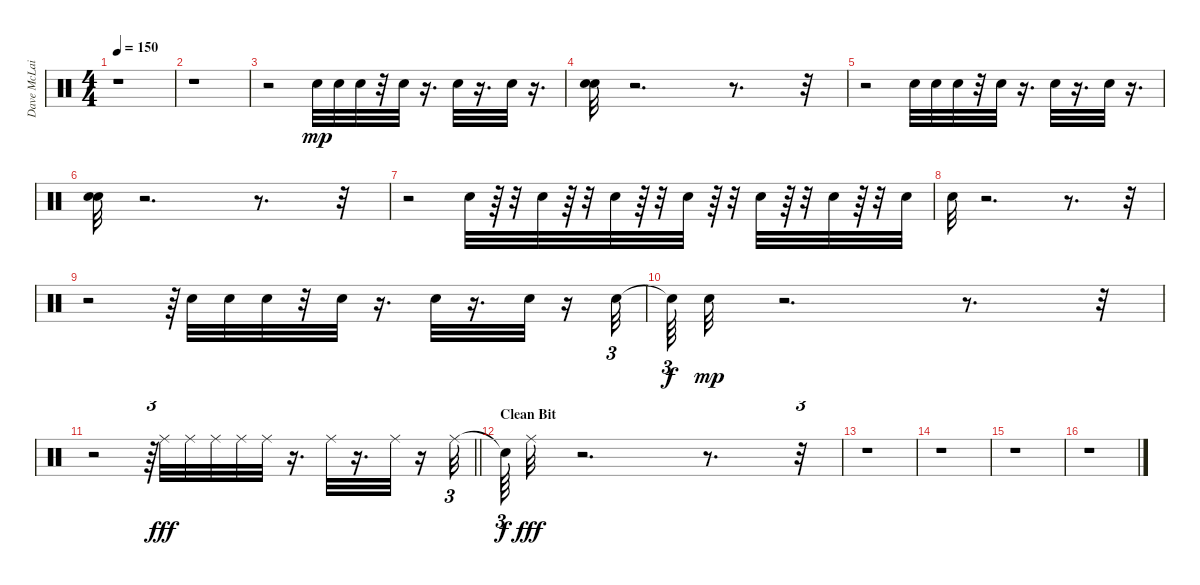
\track ("Dave McLain" "Dave McLai") {instrument percussion}
\staff {score}
\articulation defaults
\ts (4 4)
\tempo 150
\clef neutral
\ks c
r.1{dy ff} |
r.1 |
r.2 "Electric Snare (hit)".32{dy mp} "Electric Snare (hit)".32 "Electric Snare (hit)".32 r.32 "Electric Snare (hit)".32 r.16{d} "Electric Snare (hit)".32 r.16{d} "Electric Snare (hit)".32 r.16{d} |
("Electric Snare (hit)" "Electric Snare (hit)").32 r.2{d} r.8{d} r.32 |
r.2 "Electric Snare (hit)".32 "Electric Snare (hit)".32 "Electric Snare (hit)".32 r.32 "Electric Snare (hit)".32 r.16{d} "Electric Snare (hit)".32 r.16{d} "Electric Snare (hit)".32 r.16{d} |
("Electric Snare (hit)" "Electric Snare (hit)").32 r.2{d} r.8{d} r.32 |
r.2 "Electric Snare (hit)".32 r.64 r.32 "Electric Snare (hit)".32 r.64 r.32 "Electric Snare (hit)".32 r.64 r.32 "Electric Snare (hit)".32 r.64 r.32 "Electric Snare (hit)".32 r.64 r.32 "Electric Snare (hit)".32 r.64 r.32 "Electric Snare (hit)".32 |
"Electric Snare (hit)".32 r.2{d} r.8{d} r.32 |
r.2 r.64{tu (3 2)} "Electric Snare (hit)".32 "Electric Snare (hit)".32 "Electric Snare (hit)".32 r.32 "Electric Snare (hit)".32 r.16{d} "Electric Snare (hit)".32 r.16{d} "Electric Snare (hit)".32 r.16 "Electric Snare (hit)".32{tu (3 2)} |
"Snare (hit)"{t}.64{tu (3 2) dy f} "Electric Snare (hit)".32{dy mp} r.2{d} r.8{d} r.32{tu (3 2)} |
\barLineRight lightlight
r.2 r.64{tu (3 2)} "Ride (middle)".32{dy fff} "Ride (middle)".32 "Ride (middle)".32 "Ride (middle)".32 "Ride (middle)".32 r.16{d} "Ride (middle)".32 r.16{d} "Ride (middle)".32 r.16 "Ride (middle)".32{tu (3 2)} |
\section ("" "Clean Bit")
"Snare (hit)"{t}.64{tu (3 2) dy f} "Ride (middle)".32{dy fff} r.2{d} r.8{d} r.32{tu (3 2)} |
r.1 |
r.1 |
r.1 |
r.1
